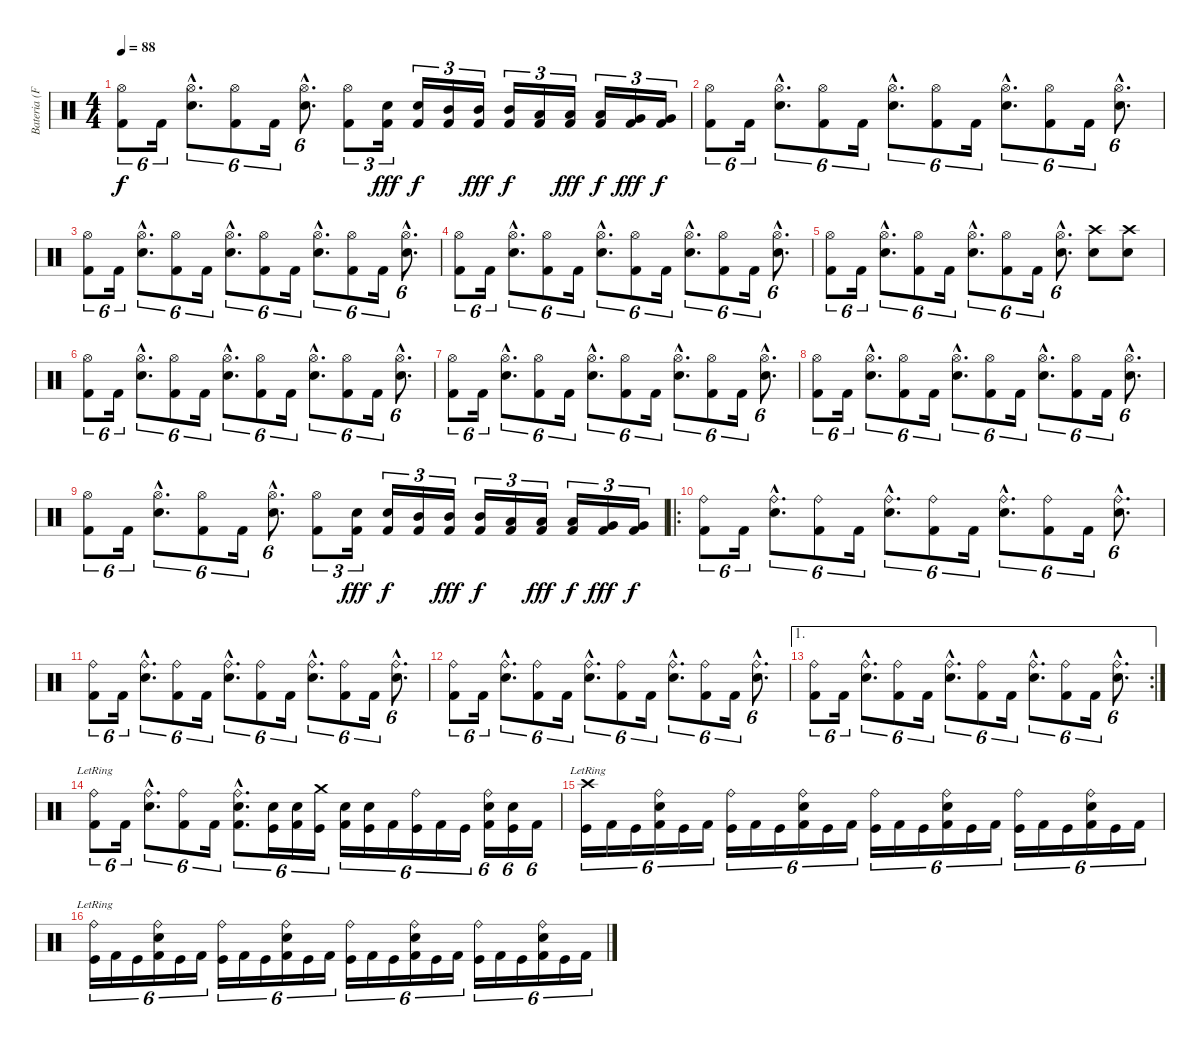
\track ("Bateria (Fernando Scarcella)" "Bateria (F") {instrument percussion}
\staff {score}
\articulation defaults
\ts (4 4)
\tempo 88
\clef neutral
\ks c
("Hi-Hat (open)" "Kick (hit) 2").8{tu (6 4) dy f} "Kick (hit) 2".16{tu (6 4)} ("Hi-Hat (open)"{hac} "Snare (hit) 2"{hac}).8{d tu (6 4)} ("Hi-Hat (open)" "Kick (hit) 2").8{tu (6 4)} "Kick (hit) 2".16{tu (6 4)} ("Hi-Hat (open)"{hac} "Snare (hit) 2"{hac}).8{d tu (6 4)} ("Hi-Hat (open)" "Kick (hit) 2").8{tu (3 2)} ("Snare (hit) 2" "Kick (hit) 2").16{tu (3 2) dy fff} ("Snare (hit) 2" "Kick (hit) 2").16{tu (3 2) dy f} ("Mid Tom (hit)" "Kick (hit) 2").16{tu (3 2)} ("Mid Tom (hit)" "Kick (hit) 2").16{tu (3 2) dy fff} ("Mid Tom (hit)" "Kick (hit) 2").16{tu (3 2) dy f} ("Low Tom (hit)" "Kick (hit) 2").16{tu (3 2)} ("Low Tom (hit)" "Kick (hit) 2").16{tu (3 2) dy fff} ("Low Tom (hit)" "Kick (hit) 2").16{tu (3 2) dy f} ("Very Low Tom (hit)" "Kick (hit) 2").16{tu (3 2) dy fff} ("Very Low Tom (hit)" "Kick (hit) 2").16{tu (3 2) dy f} |
("Hi-Hat (open)" "Kick (hit) 2").8{tu (6 4)} "Kick (hit) 2".16{tu (6 4)} ("Hi-Hat (open)"{hac} "Snare (hit) 2"{hac}).8{d tu (6 4)} ("Hi-Hat (open)" "Kick (hit) 2").8{tu (6 4)} "Kick (hit) 2".16{tu (6 4)} ("Hi-Hat (open)"{hac} "Snare (hit) 2"{hac}).8{d tu (6 4)} ("Hi-Hat (open)" "Kick (hit) 2").8{tu (6 4)} "Kick (hit) 2".16{tu (6 4)} ("Hi-Hat (open)"{hac} "Snare (hit) 2"{hac}).8{d tu (6 4)} ("Hi-Hat (open)" "Kick (hit) 2").8{tu (6 4)} "Kick (hit) 2".16{tu (6 4)} ("Hi-Hat (open)"{hac} "Snare (hit) 2"{hac}).8{d tu (6 4)} |
("Hi-Hat (open)" "Kick (hit) 2").8{tu (6 4)} "Kick (hit) 2".16{tu (6 4)} ("Hi-Hat (open)"{hac} "Snare (hit) 2"{hac}).8{d tu (6 4)} ("Hi-Hat (open)" "Kick (hit) 2").8{tu (6 4)} "Kick (hit) 2".16{tu (6 4)} ("Hi-Hat (open)"{hac} "Snare (hit) 2"{hac}).8{d tu (6 4)} ("Hi-Hat (open)" "Kick (hit) 2").8{tu (6 4)} "Kick (hit) 2".16{tu (6 4)} ("Hi-Hat (open)"{hac} "Snare (hit) 2"{hac}).8{d tu (6 4)} ("Hi-Hat (open)" "Kick (hit) 2").8{tu (6 4)} "Kick (hit) 2".16{tu (6 4)} ("Hi-Hat (open)"{hac} "Snare (hit) 2"{hac}).8{d tu (6 4)} |
("Hi-Hat (open)" "Kick (hit) 2").8{tu (6 4)} "Kick (hit) 2".16{tu (6 4)} ("Hi-Hat (open)"{hac} "Snare (hit) 2"{hac}).8{d tu (6 4)} ("Hi-Hat (open)" "Kick (hit) 2").8{tu (6 4)} "Kick (hit) 2".16{tu (6 4)} ("Hi-Hat (open)"{hac} "Snare (hit) 2"{hac}).8{d tu (6 4)} ("Hi-Hat (open)" "Kick (hit) 2").8{tu (6 4)} "Kick (hit) 2".16{tu (6 4)} ("Hi-Hat (open)"{hac} "Snare (hit) 2"{hac}).8{d tu (6 4)} ("Hi-Hat (open)" "Kick (hit) 2").8{tu (6 4)} "Kick (hit) 2".16{tu (6 4)} ("Hi-Hat (open)"{hac} "Snare (hit) 2"{hac}).8{d tu (6 4)} |
("Hi-Hat (open)" "Kick (hit) 2").8{tu (6 4)} "Kick (hit) 2".16{tu (6 4)} ("Hi-Hat (open)"{hac} "Snare (hit) 2"{hac}).8{d tu (6 4)} ("Hi-Hat (open)" "Kick (hit) 2").8{tu (6 4)} "Kick (hit) 2".16{tu (6 4)} ("Hi-Hat (open)"{hac} "Snare (hit) 2"{hac}).8{d tu (6 4)} ("Hi-Hat (open)" "Kick (hit) 2").8{tu (6 4)} "Kick (hit) 2".16{tu (6 4)} ("Hi-Hat (open)"{hac} "Snare (hit) 2"{hac}).8{d tu (6 4)} ("Crash high (hit)" "Snare (hit) 2").8 ("Crash high (hit)" "Snare (hit) 2").8 |
("Hi-Hat (open)" "Kick (hit) 2").8{tu (6 4)} "Kick (hit) 2".16{tu (6 4)} ("Hi-Hat (open)"{hac} "Snare (hit) 2"{hac}).8{d tu (6 4)} ("Hi-Hat (open)" "Kick (hit) 2").8{tu (6 4)} "Kick (hit) 2".16{tu (6 4)} ("Hi-Hat (open)"{hac} "Snare (hit) 2"{hac}).8{d tu (6 4)} ("Hi-Hat (open)" "Kick (hit) 2").8{tu (6 4)} "Kick (hit) 2".16{tu (6 4)} ("Hi-Hat (open)"{hac} "Snare (hit) 2"{hac}).8{d tu (6 4)} ("Hi-Hat (open)" "Kick (hit) 2").8{tu (6 4)} "Kick (hit) 2".16{tu (6 4)} ("Hi-Hat (open)"{hac} "Snare (hit) 2"{hac}).8{d tu (6 4)} |
("Hi-Hat (open)" "Kick (hit) 2").8{tu (6 4)} "Kick (hit) 2".16{tu (6 4)} ("Hi-Hat (open)"{hac} "Snare (hit) 2"{hac}).8{d tu (6 4)} ("Hi-Hat (open)" "Kick (hit) 2").8{tu (6 4)} "Kick (hit) 2".16{tu (6 4)} ("Hi-Hat (open)"{hac} "Snare (hit) 2"{hac}).8{d tu (6 4)} ("Hi-Hat (open)" "Kick (hit) 2").8{tu (6 4)} "Kick (hit) 2".16{tu (6 4)} ("Hi-Hat (open)"{hac} "Snare (hit) 2"{hac}).8{d tu (6 4)} ("Hi-Hat (open)" "Kick (hit) 2").8{tu (6 4)} "Kick (hit) 2".16{tu (6 4)} ("Hi-Hat (open)"{hac} "Snare (hit) 2"{hac}).8{d tu (6 4)} |
("Hi-Hat (open)" "Kick (hit) 2").8{tu (6 4)} "Kick (hit) 2".16{tu (6 4)} ("Hi-Hat (open)"{hac} "Snare (hit) 2"{hac}).8{d tu (6 4)} ("Hi-Hat (open)" "Kick (hit) 2").8{tu (6 4)} "Kick (hit) 2".16{tu (6 4)} ("Hi-Hat (open)"{hac} "Snare (hit) 2"{hac}).8{d tu (6 4)} ("Hi-Hat (open)" "Kick (hit) 2").8{tu (6 4)} "Kick (hit) 2".16{tu (6 4)} ("Hi-Hat (open)"{hac} "Snare (hit) 2"{hac}).8{d tu (6 4)} ("Hi-Hat (open)" "Kick (hit) 2").8{tu (6 4)} "Kick (hit) 2".16{tu (6 4)} ("Hi-Hat (open)"{hac} "Snare (hit) 2"{hac}).8{d tu (6 4)} |
("Hi-Hat (open)" "Kick (hit) 2").8{tu (6 4)} "Kick (hit) 2".16{tu (6 4)} ("Hi-Hat (open)"{hac} "Snare (hit) 2"{hac}).8{d tu (6 4)} ("Hi-Hat (open)" "Kick (hit) 2").8{tu (6 4)} "Kick (hit) 2".16{tu (6 4)} ("Hi-Hat (open)"{hac} "Snare (hit) 2"{hac}).8{d tu (6 4)} ("Hi-Hat (open)" "Kick (hit) 2").8{tu (3 2)} ("Snare (hit) 2" "Kick (hit) 2").16{tu (3 2) dy fff} ("Snare (hit) 2" "Kick (hit) 2").16{tu (3 2) dy f} ("Mid Tom (hit)" "Kick (hit) 2").16{tu (3 2)} ("Mid Tom (hit)" "Kick (hit) 2").16{tu (3 2) dy fff} ("Mid Tom (hit)" "Kick (hit) 2").16{tu (3 2) dy f} ("Low Tom (hit)" "Kick (hit) 2").16{tu (3 2)} ("Low Tom (hit)" "Kick (hit) 2").16{tu (3 2) dy fff} ("Low Tom (hit)" "Kick (hit) 2").16{tu (3 2) dy f} ("Very Low Tom (hit)" "Kick (hit) 2").16{tu (3 2) dy fff} ("Very Low Tom (hit)" "Kick (hit) 2").16{tu (3 2) dy f} |
\ro
("Ride (bell)" "Kick (hit) 2").8{tu (6 4)} "Kick (hit) 2".16{tu (6 4)} ("Ride (bell)"{hac} "Snare (hit) 2"{hac}).8{d tu (6 4)} ("Ride (bell)" "Kick (hit) 2").8{tu (6 4)} "Kick (hit) 2".16{tu (6 4)} ("Ride (bell)"{hac} "Snare (hit) 2"{hac}).8{d tu (6 4)} ("Ride (bell)" "Kick (hit) 2").8{tu (6 4)} "Kick (hit) 2".16{tu (6 4)} ("Ride (bell)"{hac} "Snare (hit) 2"{hac}).8{d tu (6 4)} ("Ride (bell)" "Kick (hit) 2").8{tu (6 4)} "Kick (hit) 2".16{tu (6 4)} ("Ride (bell)"{hac} "Snare (hit) 2"{hac}).8{d tu (6 4)} |
("Ride (bell)" "Kick (hit) 2").8{tu (6 4)} "Kick (hit) 2".16{tu (6 4)} ("Ride (bell)"{hac} "Snare (hit) 2"{hac}).8{d tu (6 4)} ("Ride (bell)" "Kick (hit) 2").8{tu (6 4)} "Kick (hit) 2".16{tu (6 4)} ("Ride (bell)"{hac} "Snare (hit) 2"{hac}).8{d tu (6 4)} ("Ride (bell)" "Kick (hit) 2").8{tu (6 4)} "Kick (hit) 2".16{tu (6 4)} ("Ride (bell)"{hac} "Snare (hit) 2"{hac}).8{d tu (6 4)} ("Ride (bell)" "Kick (hit) 2").8{tu (6 4)} "Kick (hit) 2".16{tu (6 4)} ("Ride (bell)"{hac} "Snare (hit) 2"{hac}).8{d tu (6 4)} |
("Ride (bell)" "Kick (hit) 2").8{tu (6 4)} "Kick (hit) 2".16{tu (6 4)} ("Ride (bell)"{hac} "Snare (hit) 2"{hac}).8{d tu (6 4)} ("Ride (bell)" "Kick (hit) 2").8{tu (6 4)} "Kick (hit) 2".16{tu (6 4)} ("Ride (bell)"{hac} "Snare (hit) 2"{hac}).8{d tu (6 4)} ("Ride (bell)" "Kick (hit) 2").8{tu (6 4)} "Kick (hit) 2".16{tu (6 4)} ("Ride (bell)"{hac} "Snare (hit) 2"{hac}).8{d tu (6 4)} ("Ride (bell)" "Kick (hit) 2").8{tu (6 4)} "Kick (hit) 2".16{tu (6 4)} ("Ride (bell)"{hac} "Snare (hit) 2"{hac}).8{d tu (6 4)} |
\ae 1
\rc 2
("Ride (bell)" "Kick (hit) 2").8{tu (6 4)} "Kick (hit) 2".16{tu (6 4)} ("Ride (bell)"{hac} "Snare (hit) 2"{hac}).8{d tu (6 4)} ("Ride (bell)" "Kick (hit) 2").8{tu (6 4)} "Kick (hit) 2".16{tu (6 4)} ("Ride (bell)"{hac} "Snare (hit) 2"{hac}).8{d tu (6 4)} ("Ride (bell)" "Kick (hit) 2").8{tu (6 4)} "Kick (hit) 2".16{tu (6 4)} ("Ride (bell)"{hac} "Snare (hit) 2"{hac}).8{d tu (6 4)} ("Ride (bell)" "Kick (hit) 2").8{tu (6 4)} "Kick (hit) 2".16{tu (6 4)} ("Ride (bell)"{hac} "Snare (hit) 2"{hac}).8{d tu (6 4)} |
("Ride (bell)"{lr} "Kick (hit) 2").8{tu (6 4)} "Kick (hit) 2".16{tu (6 4)} ("Ride (bell)"{hac} "Snare (hit) 2"{hac}).8{d tu (6 4)} ("Ride (bell)" "Kick (hit) 2").8{tu (6 4)} "Kick (hit) 2".16{tu (6 4)} ("Ride (bell)"{hac} "Snare (hit) 2"{hac} "Kick (hit) 2"{hac}).8{d tu (6 4)} ("Snare (hit) 2" "Kick (hit)").16{tu (6 4)} ("Snare (hit) 2" "Kick (hit) 2").16{tu (6 4)} ("Crash medium (hit)" "Kick (hit)").16{tu (6 4)} ("Snare (hit) 2" "Kick (hit) 2").16{tu (6 4)} ("Snare (hit) 2" "Kick (hit)").16{tu (6 4)} "Kick (hit) 2".16{tu (6 4)} ("Ride (bell)" "Kick (hit)").16{tu (6 4)} "Kick (hit) 2".16{tu (6 4)} "Kick (hit)".16{tu (6 4)} ("Ride (bell)" "Snare (hit) 2" "Kick (hit) 2").16{tu (6 4)} ("Snare (hit) 2" "Kick (hit)").16{tu (6 4)} "Kick (hit) 2".16{tu (6 4)} |
("Crash high (hit)"{lr} "Kick (hit)").16{tu (6 4)} "Kick (hit) 2".16{tu (6 4)} "Kick (hit)".16{tu (6 4)} ("Ride (bell)" "Snare (hit) 2" "Kick (hit) 2").16{tu (6 4)} "Kick (hit)".16{tu (6 4)} "Kick (hit) 2".16{tu (6 4)} ("Ride (bell)" "Kick (hit)").16{tu (6 4)} "Kick (hit) 2".16{tu (6 4)} "Kick (hit)".16{tu (6 4)} ("Ride (bell)" "Snare (hit) 2" "Kick (hit) 2").16{tu (6 4)} "Kick (hit)".16{tu (6 4)} "Kick (hit) 2".16{tu (6 4)} ("Ride (bell)" "Kick (hit)").16{tu (6 4)} "Kick (hit) 2".16{tu (6 4)} "Kick (hit)".16{tu (6 4)} ("Ride (bell)" "Snare (hit) 2" "Kick (hit) 2").16{tu (6 4)} "Kick (hit)".16{tu (6 4)} "Kick (hit) 2".16{tu (6 4)} ("Ride (bell)" "Kick (hit)").16{tu (6 4)} "Kick (hit) 2".16{tu (6 4)} "Kick (hit)".16{tu (6 4)} ("Ride (bell)" "Snare (hit) 2" "Kick (hit) 2").16{tu (6 4)} "Kick (hit)".16{tu (6 4)} "Kick (hit) 2".16{tu (6 4)} |
("Ride (bell)"{lr} "Kick (hit)").16{tu (6 4)} "Kick (hit) 2".16{tu (6 4)} "Kick (hit)".16{tu (6 4)} ("Ride (bell)" "Snare (hit) 2" "Kick (hit) 2").16{tu (6 4)} "Kick (hit)".16{tu (6 4)} "Kick (hit) 2".16{tu (6 4)} ("Ride (bell)" "Kick (hit)").16{tu (6 4)} "Kick (hit) 2".16{tu (6 4)} "Kick (hit)".16{tu (6 4)} ("Ride (bell)" "Snare (hit) 2" "Kick (hit) 2").16{tu (6 4)} "Kick (hit)".16{tu (6 4)} "Kick (hit) 2".16{tu (6 4)} ("Ride (bell)" "Kick (hit)").16{tu (6 4)} "Kick (hit) 2".16{tu (6 4)} "Kick (hit)".16{tu (6 4)} ("Ride (bell)" "Snare (hit) 2" "Kick (hit) 2").16{tu (6 4)} "Kick (hit)".16{tu (6 4)} "Kick (hit) 2".16{tu (6 4)} ("Ride (bell)" "Kick (hit)").16{tu (6 4)} "Kick (hit) 2".16{tu (6 4)} "Kick (hit)".16{tu (6 4)} ("Ride (bell)" "Snare (hit) 2" "Kick (hit) 2").16{tu (6 4)} "Kick (hit)".16{tu (6 4)} "Kick (hit) 2".16{tu (6 4)}
